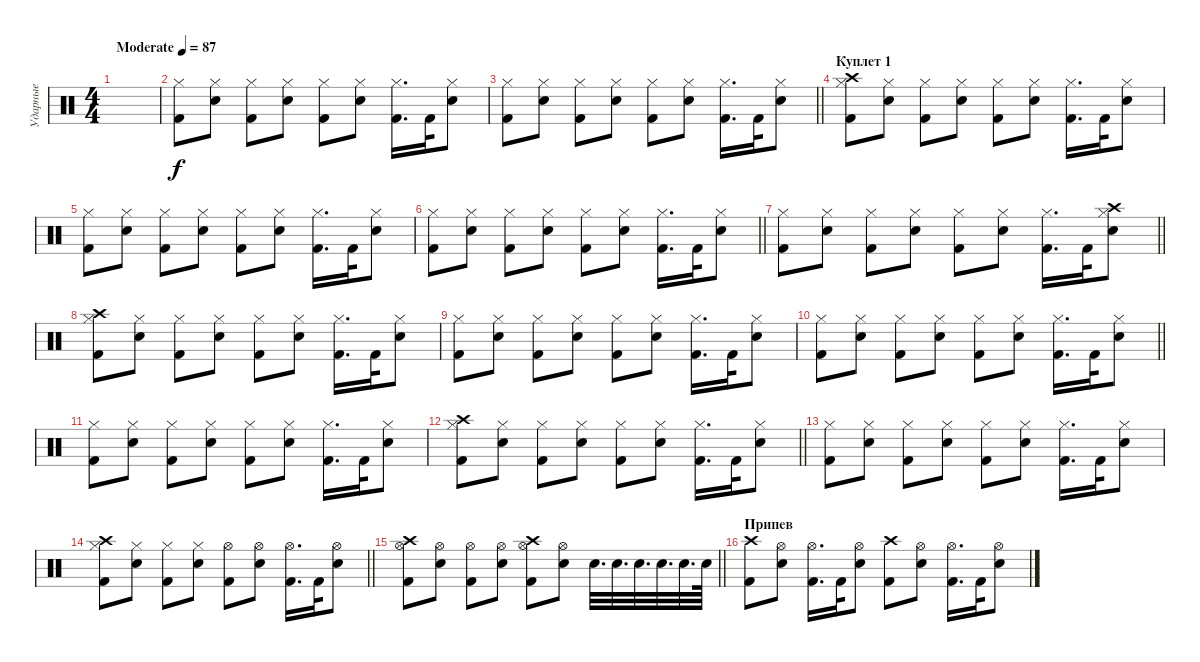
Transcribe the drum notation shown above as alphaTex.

\track ("Ударные" "Ударные") {instrument percussion}
\staff {score}
\articulation defaults
\ts (4 4)
\tempo (87 "Moderate")
\clef neutral
\ks c
|
("Hi-Hat (closed)" "Kick (hit) 2").8 ("Hi-Hat (closed)" "Snare (hit) 2").8 ("Hi-Hat (closed)" "Kick (hit) 2").8 ("Hi-Hat (closed)" "Snare (hit) 2").8 ("Hi-Hat (closed)" "Kick (hit) 2").8 ("Hi-Hat (closed)" "Snare (hit) 2").8 ("Hi-Hat (closed)" "Kick (hit) 2").16{d} "Kick (hit) 2".32 ("Hi-Hat (closed)" "Snare (hit) 2").8 |
\barLineRight lightlight
("Hi-Hat (closed)" "Kick (hit) 2").8 ("Hi-Hat (closed)" "Snare (hit) 2").8 ("Hi-Hat (closed)" "Kick (hit) 2").8 ("Hi-Hat (closed)" "Snare (hit) 2").8 ("Hi-Hat (closed)" "Kick (hit) 2").8 ("Hi-Hat (closed)" "Snare (hit) 2").8 ("Hi-Hat (closed)" "Kick (hit) 2").16{d} "Kick (hit) 2".32 ("Hi-Hat (closed)" "Snare (hit) 2").8 |
\section ("" "Куплет 1")
("Hi-Hat (closed)" "Crash high (hit)" "Kick (hit) 2").8 ("Hi-Hat (closed)" "Snare (hit) 2").8 ("Hi-Hat (closed)" "Kick (hit) 2").8 ("Hi-Hat (closed)" "Snare (hit) 2").8 ("Hi-Hat (closed)" "Kick (hit) 2").8 ("Hi-Hat (closed)" "Snare (hit) 2").8 ("Hi-Hat (closed)" "Kick (hit) 2").16{d} "Kick (hit) 2".32 ("Hi-Hat (closed)" "Snare (hit) 2").8 |
("Hi-Hat (closed)" "Kick (hit) 2").8 ("Hi-Hat (closed)" "Snare (hit) 2").8 ("Hi-Hat (closed)" "Kick (hit) 2").8 ("Hi-Hat (closed)" "Snare (hit) 2").8 ("Hi-Hat (closed)" "Kick (hit) 2").8 ("Hi-Hat (closed)" "Snare (hit) 2").8 ("Hi-Hat (closed)" "Kick (hit) 2").16{d} "Kick (hit) 2".32 ("Hi-Hat (closed)" "Snare (hit) 2").8 |
\barLineRight lightlight
("Hi-Hat (closed)" "Kick (hit) 2").8 ("Hi-Hat (closed)" "Snare (hit) 2").8 ("Hi-Hat (closed)" "Kick (hit) 2").8 ("Hi-Hat (closed)" "Snare (hit) 2").8 ("Hi-Hat (closed)" "Kick (hit) 2").8 ("Hi-Hat (closed)" "Snare (hit) 2").8 ("Hi-Hat (closed)" "Kick (hit) 2").16{d} "Kick (hit) 2".32 ("Hi-Hat (closed)" "Snare (hit) 2").8 |
\barLineRight lightlight
("Hi-Hat (closed)" "Kick (hit) 2").8 ("Hi-Hat (closed)" "Snare (hit) 2").8 ("Hi-Hat (closed)" "Kick (hit) 2").8 ("Hi-Hat (closed)" "Snare (hit) 2").8 ("Hi-Hat (closed)" "Kick (hit) 2").8 ("Hi-Hat (closed)" "Snare (hit) 2").8 ("Hi-Hat (closed)" "Kick (hit) 2").16{d} "Kick (hit) 2".32 ("Hi-Hat (closed)" "Crash high (hit)" "Snare (hit) 2").8 |
("Hi-Hat (closed)" "Crash high (hit)" "Kick (hit) 2").8 ("Hi-Hat (closed)" "Snare (hit) 2").8 ("Hi-Hat (closed)" "Kick (hit) 2").8 ("Hi-Hat (closed)" "Snare (hit) 2").8 ("Hi-Hat (closed)" "Kick (hit) 2").8 ("Hi-Hat (closed)" "Snare (hit) 2").8 ("Hi-Hat (closed)" "Kick (hit) 2").16{d} "Kick (hit) 2".32 ("Hi-Hat (closed)" "Snare (hit) 2").8 |
("Hi-Hat (closed)" "Kick (hit) 2").8 ("Hi-Hat (closed)" "Snare (hit) 2").8 ("Hi-Hat (closed)" "Kick (hit) 2").8 ("Hi-Hat (closed)" "Snare (hit) 2").8 ("Hi-Hat (closed)" "Kick (hit) 2").8 ("Hi-Hat (closed)" "Snare (hit) 2").8 ("Hi-Hat (closed)" "Kick (hit) 2").16{d} "Kick (hit) 2".32 ("Hi-Hat (closed)" "Snare (hit) 2").8 |
\barLineRight lightlight
("Hi-Hat (closed)" "Kick (hit) 2").8 ("Hi-Hat (closed)" "Snare (hit) 2").8 ("Hi-Hat (closed)" "Kick (hit) 2").8 ("Hi-Hat (closed)" "Snare (hit) 2").8 ("Hi-Hat (closed)" "Kick (hit) 2").8 ("Hi-Hat (closed)" "Snare (hit) 2").8 ("Hi-Hat (closed)" "Kick (hit) 2").16{d} "Kick (hit) 2".32 ("Hi-Hat (closed)" "Snare (hit) 2").8 |
("Hi-Hat (closed)" "Kick (hit) 2").8 ("Hi-Hat (closed)" "Snare (hit) 2").8 ("Hi-Hat (closed)" "Kick (hit) 2").8 ("Hi-Hat (closed)" "Snare (hit) 2").8 ("Hi-Hat (closed)" "Kick (hit) 2").8 ("Hi-Hat (closed)" "Snare (hit) 2").8 ("Hi-Hat (closed)" "Kick (hit) 2").16{d} "Kick (hit) 2".32 ("Hi-Hat (closed)" "Snare (hit) 2").8 |
\barLineRight lightlight
("Hi-Hat (closed)" "Crash high (hit)" "Kick (hit) 2").8 ("Hi-Hat (closed)" "Snare (hit) 2").8 ("Hi-Hat (closed)" "Kick (hit) 2").8 ("Hi-Hat (closed)" "Snare (hit) 2").8 ("Hi-Hat (closed)" "Kick (hit) 2").8 ("Hi-Hat (closed)" "Snare (hit) 2").8 ("Hi-Hat (closed)" "Kick (hit) 2").16{d} "Kick (hit) 2".32 ("Hi-Hat (closed)" "Snare (hit) 2").8 |
("Hi-Hat (closed)" "Kick (hit) 2").8 ("Hi-Hat (closed)" "Snare (hit) 2").8 ("Hi-Hat (closed)" "Kick (hit) 2").8 ("Hi-Hat (closed)" "Snare (hit) 2").8 ("Hi-Hat (closed)" "Kick (hit) 2").8 ("Hi-Hat (closed)" "Snare (hit) 2").8 ("Hi-Hat (closed)" "Kick (hit) 2").16{d} "Kick (hit) 2".32 ("Hi-Hat (closed)" "Snare (hit) 2").8 |
\barLineRight lightlight
("Hi-Hat (closed)" "Crash high (hit)" "Kick (hit) 2").8 ("Hi-Hat (closed)" "Snare (hit) 2").8 ("Hi-Hat (closed)" "Kick (hit) 2").8 ("Hi-Hat (closed)" "Snare (hit) 2").8 ("Hi-Hat (open)" "Kick (hit) 2").8 ("Hi-Hat (open)" "Snare (hit) 2").8 ("Hi-Hat (open)" "Kick (hit) 2").16{d} "Kick (hit) 2".32 ("Hi-Hat (open)" "Snare (hit) 2").8 |
\barLineRight lightlight
("Hi-Hat (open)" "Crash high (hit)" "Kick (hit) 2").8 ("Hi-Hat (open)" "Snare (hit) 2").8 ("Hi-Hat (open)" "Kick (hit) 2").8 ("Hi-Hat (open)" "Snare (hit) 2").8 ("Hi-Hat (open)" "Crash high (hit)" "Kick (hit) 2").8 ("Hi-Hat (open)" "Snare (hit) 2").8 "Snare (hit) 2".32{d} "Snare (hit) 2".32{d} "Snare (hit) 2".32{d} "Snare (hit) 2".32{d} "Snare (hit) 2".32{d} "Snare (hit) 2".64 |
\section ("" "Припев")
("Crash high (hit)" "Kick (hit) 2").8 ("Hi-Hat (open)" "Snare (hit) 2").8 ("Hi-Hat (open)" "Kick (hit) 2").16{d} "Kick (hit) 2".32 ("Hi-Hat (open)" "Snare (hit) 2").8 ("Crash high (hit)" "Kick (hit) 2").8 ("Hi-Hat (open)" "Snare (hit) 2").8 ("Hi-Hat (open)" "Kick (hit) 2").16{d} "Kick (hit) 2".32 ("Hi-Hat (open)" "Snare (hit) 2").8
